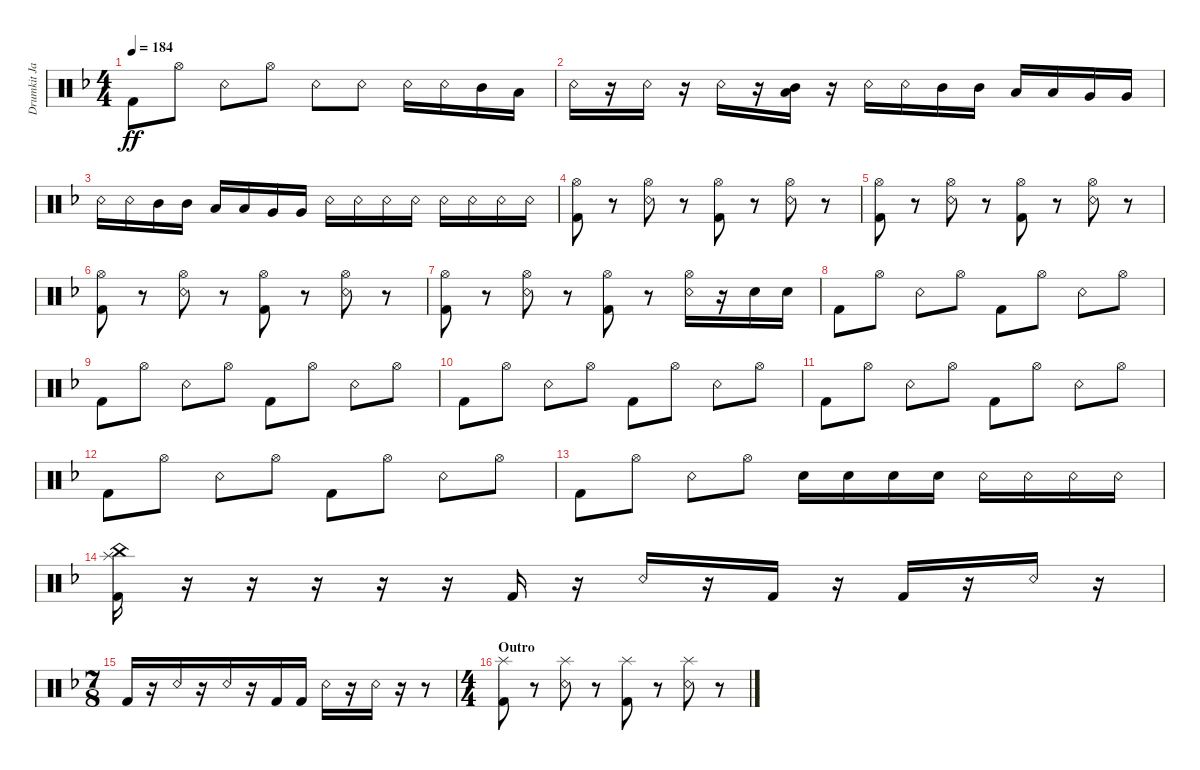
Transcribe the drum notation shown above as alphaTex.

\track ("Drumkit Jason" "Drumkit Ja") {instrument percussion}
\staff {score}
\articulation defaults
\ts (4 4)
\tempo 184
\clef neutral
\ks dminor "Kick (hit) 2".8{dy ff} "Hi-Hat (open)".8 "Snare (rim shot)".8 "Hi-Hat (open)".8 "Snare (rim shot)".8 "Snare (rim shot)".8 "Snare (rim shot)".16 "Snare (rim shot)".16 "Mid Tom (hit)".16 "Low Tom (hit)".16
|
"Snare (rim shot)".16 r.16 "Snare (rim shot)".16 r.16 "Snare (rim shot)".16 r.16 ("Mid Tom (hit)" "Low Tom (hit)").16 r.16 "Snare (rim shot)".16 "Snare (rim shot)".16 "Mid Tom (hit)".16 "Mid Tom (hit)".16 "Low Tom (hit)".16 "Low Tom (hit)".16 "Very Low Tom (hit)".16 "Very Low Tom (hit)".16 |
"Snare (rim shot)".16 "Snare (rim shot)".16 "Mid Tom (hit)".16 "Mid Tom (hit)".16 "Low Tom (hit)".16 "Low Tom (hit)".16 "Very Low Tom (hit)".16 "Very Low Tom (hit)".16 "Snare (rim shot)".16 "Snare (rim shot)".16 "Snare (rim shot)".16 "Snare (rim shot)".16 "Snare (rim shot)".16 "Snare (rim shot)".16 "Snare (rim shot)".16 "Snare (rim shot)".16 |
("Hi-Hat (open)" "Kick (hit) 2").8 r.8 ("Hi-Hat (open)" "Snare (rim shot)").8 r.8 ("Hi-Hat (open)" "Kick (hit) 2").8 r.8 ("Hi-Hat (open)" "Snare (rim shot)").8 r.8 |
("Hi-Hat (open)" "Kick (hit) 2").8 r.8 ("Hi-Hat (open)" "Snare (rim shot)").8 r.8 ("Hi-Hat (open)" "Kick (hit) 2").8 r.8 ("Hi-Hat (open)" "Snare (rim shot)").8 r.8 |
("Hi-Hat (open)" "Kick (hit) 2").8 r.8 ("Hi-Hat (open)" "Snare (rim shot)").8 r.8 ("Hi-Hat (open)" "Kick (hit) 2").8 r.8 ("Hi-Hat (open)" "Snare (rim shot)").8 r.8 |
("Hi-Hat (open)" "Kick (hit) 2").8 r.8 ("Hi-Hat (open)" "Snare (rim shot)").8 r.8 ("Hi-Hat (open)" "Kick (hit) 2").8 r.8 ("Hi-Hat (open)" "Snare (rim shot)").16 r.16 "Snare (hit) 2".16 "Snare (hit) 2".16 |
"Kick (hit) 2".8 "Hi-Hat (open)".8 "Snare (rim shot)".8 "Hi-Hat (open)".8 "Kick (hit) 2".8 "Hi-Hat (open)".8 "Snare (rim shot)".8 "Hi-Hat (open)".8 |
"Kick (hit) 2".8 "Hi-Hat (open)".8 "Snare (rim shot)".8 "Hi-Hat (open)".8 "Kick (hit) 2".8 "Hi-Hat (open)".8 "Snare (rim shot)".8 "Hi-Hat (open)".8 |
"Kick (hit) 2".8 "Hi-Hat (open)".8 "Snare (rim shot)".8 "Hi-Hat (open)".8 "Kick (hit) 2".8 "Hi-Hat (open)".8 "Snare (rim shot)".8 "Hi-Hat (open)".8 |
"Kick (hit) 2".8 "Hi-Hat (open)".8 "Snare (rim shot)".8 "Hi-Hat (open)".8 "Kick (hit) 2".8 "Hi-Hat (open)".8 "Snare (rim shot)".8 "Hi-Hat (open)".8 |
"Kick (hit) 2".8 "Hi-Hat (open)".8 "Snare (rim shot)".8 "Hi-Hat (open)".8 "Kick (hit) 2".8 "Hi-Hat (open)".8 "Snare (rim shot)".8 "Hi-Hat (open)".8 |
"Kick (hit) 2".8 "Hi-Hat (open)".8 "Snare (rim shot)".8 "Hi-Hat (open)".8 "Snare (hit) 2".16 "Snare (hit) 2".16 "Snare (hit) 2".16 "Snare (hit) 2".16 "Snare (rim shot)".16 "Snare (rim shot)".16 "Snare (rim shot)".16 "Snare (rim shot)".16 |
("Splash (hit)" "China (hit)" "Kick (hit) 2").16 r.16 r.16 r.16 r.16 r.16 "Kick (hit) 2".16 r.16 "Snare (rim shot)".16 r.16 "Kick (hit) 2".16 r.16 "Kick (hit) 2".16 r.16 "Snare (rim shot)".16 r.16 |
\ts (7 8)
"Kick (hit) 2".16 r.16 "Snare (rim shot)".16 r.16 "Snare (rim shot)".16 r.16 "Kick (hit) 2".16 "Kick (hit) 2".16 "Snare (rim shot)".16 r.16 "Snare (rim shot)".16 r.16 r.8 |
\ts (4 4)
\section ("" "Outro")
("Kick (hit) 2" "Splash (hit)").8 r.8 ("Snare (rim shot)" "Splash (hit)").8 r.8 ("Kick (hit) 2" "Splash (hit)").8 r.8 ("Splash (hit)" "Snare (rim shot)").8 r.8
